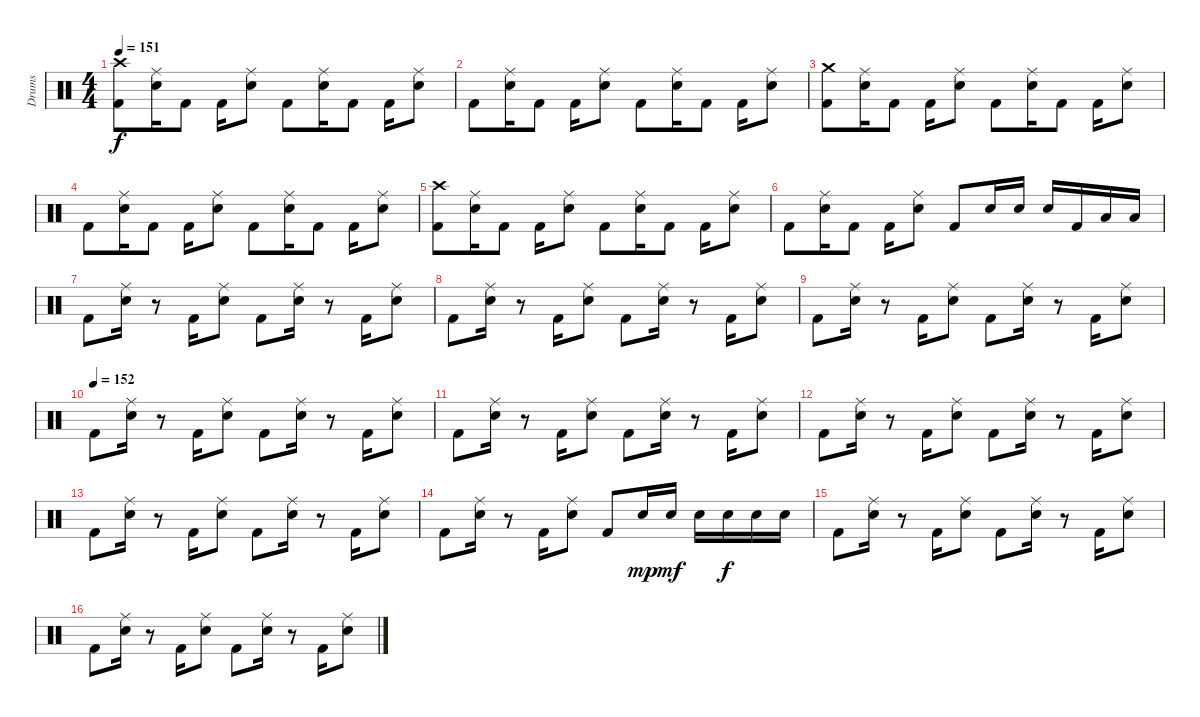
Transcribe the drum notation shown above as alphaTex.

\track ("Drums" "Drums") {instrument percussion}
\staff {score}
\articulation defaults
\ts (4 4)
\tempo 151
\clef neutral
\ks c
("Crash high (hit)" "Kick (hit) 2").8{dy f} ("Ride (middle)" "Snare (hit) 2").16 "Kick (hit) 2".8 "Kick (hit) 2".16 ("Ride (middle)" "Snare (hit) 2").8 "Kick (hit) 2".8 ("Ride (middle)" "Snare (hit) 2").16 "Kick (hit) 2".8 "Kick (hit) 2".16 ("Ride (middle)" "Snare (hit) 2").8 |
"Kick (hit) 2".8 ("Ride (middle)" "Snare (hit) 2").16 "Kick (hit) 2".8 "Kick (hit) 2".16 ("Ride (middle)" "Snare (hit) 2").8 "Kick (hit) 2".8 ("Ride (middle)" "Snare (hit) 2").16 "Kick (hit) 2".8 "Kick (hit) 2".16 ("Ride (middle)" "Snare (hit) 2").8 |
("Crash medium (hit)" "Kick (hit) 2").8 ("Ride (middle)" "Snare (hit) 2").16 "Kick (hit) 2".8 "Kick (hit) 2".16 ("Ride (middle)" "Snare (hit) 2").8 "Kick (hit) 2".8 ("Ride (middle)" "Snare (hit) 2").16 "Kick (hit) 2".8 "Kick (hit) 2".16 ("Ride (middle)" "Snare (hit) 2").8 |
"Kick (hit) 2".8 ("Ride (middle)" "Snare (hit) 2").16 "Kick (hit) 2".8 "Kick (hit) 2".16 ("Ride (middle)" "Snare (hit) 2").8 "Kick (hit) 2".8 ("Ride (middle)" "Snare (hit) 2").16 "Kick (hit) 2".8 "Kick (hit) 2".16 ("Ride (middle)" "Snare (hit) 2").8 |
("Crash high (hit)" "Kick (hit) 2").8 ("Ride (middle)" "Snare (hit) 2").16 "Kick (hit) 2".8 "Kick (hit) 2".16 ("Ride (middle)" "Snare (hit) 2").8 "Kick (hit) 2".8 ("Ride (middle)" "Snare (hit) 2").16 "Kick (hit) 2".8 "Kick (hit) 2".16 ("Ride (middle)" "Snare (hit) 2").8 |
"Kick (hit) 2".8 ("Ride (middle)" "Snare (hit) 2").16 "Kick (hit) 2".8 "Kick (hit) 2".16 ("Ride (middle)" "Snare (hit) 2").8 "Kick (hit) 2".8 "Snare (hit) 2".16 "Snare (hit) 2".16 "Snare (hit) 2".16 "Kick (hit) 2".16 "Low Tom (hit)".16 "Low Tom (hit)".16 |
"Kick (hit) 2".8 ("Ride (middle)" "Snare (hit) 2").16 r.8 "Kick (hit) 2".16 ("Ride (middle)" "Snare (hit) 2").8 "Kick (hit) 2".8 ("Ride (middle)" "Snare (hit) 2").16 r.8 "Kick (hit) 2".16 ("Ride (middle)" "Snare (hit) 2").8 |
"Kick (hit) 2".8 ("Ride (middle)" "Snare (hit) 2").16 r.8 "Kick (hit) 2".16 ("Ride (middle)" "Snare (hit) 2").8 "Kick (hit) 2".8 ("Ride (middle)" "Snare (hit) 2").16 r.8 "Kick (hit) 2".16 ("Ride (middle)" "Snare (hit) 2").8 |
"Kick (hit) 2".8 ("Ride (middle)" "Snare (hit) 2").16 r.8 "Kick (hit) 2".16 ("Ride (middle)" "Snare (hit) 2").8 "Kick (hit) 2".8 ("Ride (middle)" "Snare (hit) 2").16 r.8 "Kick (hit) 2".16 ("Ride (middle)" "Snare (hit) 2").8 |
\tempo (152)
"Kick (hit) 2".8 ("Ride (middle)" "Snare (hit) 2").16 r.8 "Kick (hit) 2".16 ("Ride (middle)" "Snare (hit) 2").8 "Kick (hit) 2".8 ("Ride (middle)" "Snare (hit) 2").16 r.8 "Kick (hit) 2".16 ("Ride (middle)" "Snare (hit) 2").8 |
"Kick (hit) 2".8 ("Ride (middle)" "Snare (hit) 2").16 r.8 "Kick (hit) 2".16 ("Ride (middle)" "Snare (hit) 2").8 "Kick (hit) 2".8 ("Ride (middle)" "Snare (hit) 2").16 r.8 "Kick (hit) 2".16 ("Ride (middle)" "Snare (hit) 2").8 |
"Kick (hit) 2".8 ("Ride (middle)" "Snare (hit) 2").16 r.8 "Kick (hit) 2".16 ("Ride (middle)" "Snare (hit) 2").8 "Kick (hit) 2".8 ("Ride (middle)" "Snare (hit) 2").16 r.8 "Kick (hit) 2".16 ("Ride (middle)" "Snare (hit) 2").8 |
"Kick (hit) 2".8 ("Ride (middle)" "Snare (hit) 2").16 r.8 "Kick (hit) 2".16 ("Ride (middle)" "Snare (hit) 2").8 "Kick (hit) 2".8 ("Ride (middle)" "Snare (hit) 2").16 r.8 "Kick (hit) 2".16 ("Ride (middle)" "Snare (hit) 2").8 |
"Kick (hit) 2".8 ("Ride (middle)" "Snare (hit) 2").16 r.8 "Kick (hit) 2".16 ("Ride (middle)" "Snare (hit) 2").8 "Kick (hit) 2".8 "Snare (hit) 2".16{dy mp} "Snare (hit) 2".16{dy mf} "Snare (hit) 2".16 "Snare (hit) 2".16{dy f} "Snare (hit) 2".16 "Snare (hit) 2".16 |
"Kick (hit) 2".8 ("Ride (middle)" "Snare (hit) 2").16 r.8 "Kick (hit) 2".16 ("Ride (middle)" "Snare (hit) 2").8 "Kick (hit) 2".8 ("Ride (middle)" "Snare (hit) 2").16 r.8 "Kick (hit) 2".16 ("Ride (middle)" "Snare (hit) 2").8 |
"Kick (hit) 2".8 ("Ride (middle)" "Snare (hit) 2").16 r.8 "Kick (hit) 2".16 ("Ride (middle)" "Snare (hit) 2").8 "Kick (hit) 2".8 ("Ride (middle)" "Snare (hit) 2").16 r.8 "Kick (hit) 2".16 ("Ride (middle)" "Snare (hit) 2").8
